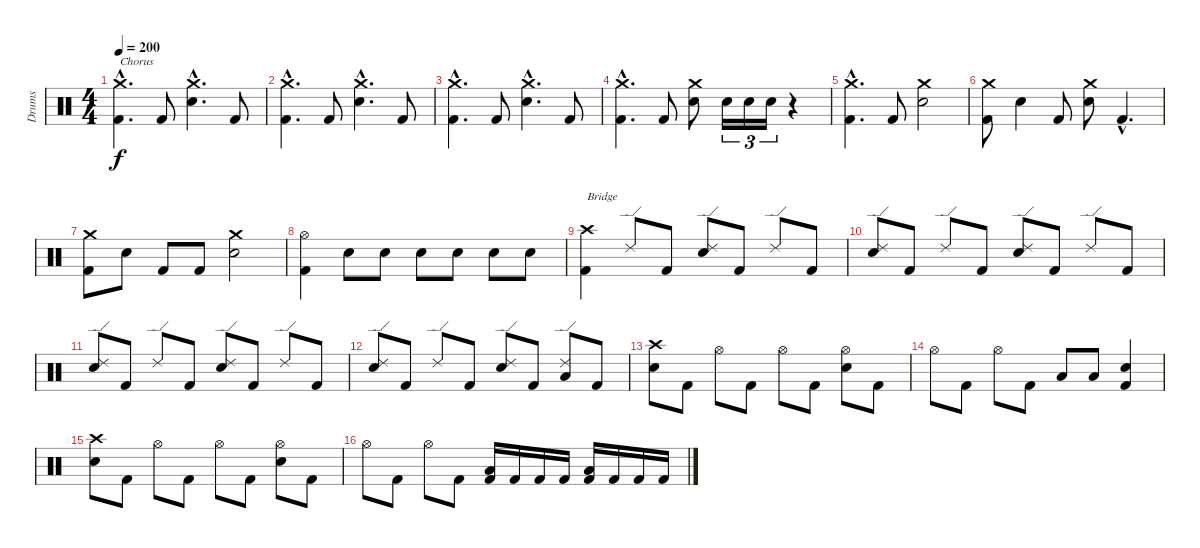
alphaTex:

\track ("Drums" "Drums") {instrument percussion}
\staff {score}
\articulation defaults
\ts (4 4)
\tempo 200
\clef neutral
\ks c
("Crash medium (hit)"{hac} "Kick (hit) 2"{hac}).4{d txt "Chorus" dy f} "Kick (hit) 2".8 ("Crash medium (hit)"{hac} "Electric Snare (hit)"{hac}).4{d} "Kick (hit) 2".8 |
("Crash medium (hit)"{hac} "Kick (hit) 2"{hac}).4{d} "Kick (hit) 2".8 ("Crash medium (hit)"{hac} "Electric Snare (hit)"{hac}).4{d} "Kick (hit) 2".8 |
("Crash medium (hit)"{hac} "Kick (hit) 2"{hac}).4{d} "Kick (hit) 2".8 ("Crash medium (hit)"{hac} "Electric Snare (hit)"{hac}).4{d} "Kick (hit) 2".8 |
("Crash medium (hit)"{hac} "Kick (hit) 2"{hac}).4{d} "Kick (hit) 2".8 ("Crash medium (hit)" "Electric Snare (hit)").8 "Electric Snare (hit)".16{tu (3 2)} "Electric Snare (hit)".16{tu (3 2)} "Electric Snare (hit)".16{tu (3 2)} r.4 |
("Crash medium (hit)"{hac} "Kick (hit) 2"{hac}).4{d} "Kick (hit) 2".8 ("Crash medium (hit)" "Electric Snare (hit)").2 |
("Crash medium (hit)" "Kick (hit) 2").8 "Electric Snare (hit)".4 "Kick (hit) 2".8 ("Crash medium (hit)" "Electric Snare (hit)").8 "Kick (hit) 2"{hac}.4{d} |
("Crash medium (hit)" "Kick (hit) 2").8 "Electric Snare (hit)".8 "Kick (hit) 2".8 "Kick (hit) 2".8 ("Crash medium (hit)" "Electric Snare (hit)").2 |
("Hi-Hat (open)" "Kick (hit) 2").4 "Electric Snare (hit)".8 "Electric Snare (hit)".8 "Electric Snare (hit)".8 "Electric Snare (hit)".8 "Electric Snare (hit)".8 "Electric Snare (hit)".8 |
("Crash high (hit)" "Kick (hit) 2").4{txt "Bridge"} "Ride (edge) 2".8 "Kick (hit) 2".8 ("Ride (edge) 2" "Electric Snare (hit)").8 "Kick (hit) 2".8 "Ride (edge) 2".8 "Kick (hit) 2".8 |
("Ride (edge) 2" "Electric Snare (hit)").8 "Kick (hit) 2".8 "Ride (edge) 2".8 "Kick (hit) 2".8 ("Ride (edge) 2" "Electric Snare (hit)").8 "Kick (hit) 2".8 "Ride (edge) 2".8 "Kick (hit) 2".8 |
("Ride (edge) 2" "Electric Snare (hit)").8 "Kick (hit) 2".8 "Ride (edge) 2".8 "Kick (hit) 2".8 ("Ride (edge) 2" "Electric Snare (hit)").8 "Kick (hit) 2".8 "Ride (edge) 2".8 "Kick (hit) 2".8 |
("Ride (edge) 2" "Electric Snare (hit)").8 "Kick (hit) 2".8 "Ride (edge) 2".8 "Kick (hit) 2".8 ("Ride (edge) 2" "Electric Snare (hit)").8 "Kick (hit) 2".8 ("Ride (edge) 2" "Low Tom (hit)").8 "Kick (hit) 2".8 |
("Crash high (hit)" "Electric Snare (hit)").8 "Kick (hit) 2".8 "Hi-Hat (open)".8 "Kick (hit) 2".8 "Hi-Hat (open)".8 "Kick (hit) 2".8 ("Hi-Hat (open)" "Electric Snare (hit)").8 "Kick (hit) 2".8 |
"Hi-Hat (open)".8 "Kick (hit) 2".8 "Hi-Hat (open)".8 "Kick (hit) 2".8 "Low Tom (hit)".8 "Low Tom (hit)".8 ("Electric Snare (hit)" "Kick (hit) 2").4 |
("Crash high (hit)" "Electric Snare (hit)").8 "Kick (hit) 2".8 "Hi-Hat (open)".8 "Kick (hit) 2".8 "Hi-Hat (open)".8 "Kick (hit) 2".8 ("Hi-Hat (open)" "Electric Snare (hit)").8 "Kick (hit) 2".8 |
"Hi-Hat (open)".8 "Kick (hit) 2".8 "Hi-Hat (open)".8 "Kick (hit) 2".8 ("Low Tom (hit)" "Kick (hit) 2").16 "Kick (hit) 2".16 "Kick (hit) 2".16 "Kick (hit) 2".16 ("Low Tom (hit)" "Kick (hit) 2").16 "Kick (hit) 2".16 "Kick (hit) 2".16 "Kick (hit) 2".16
